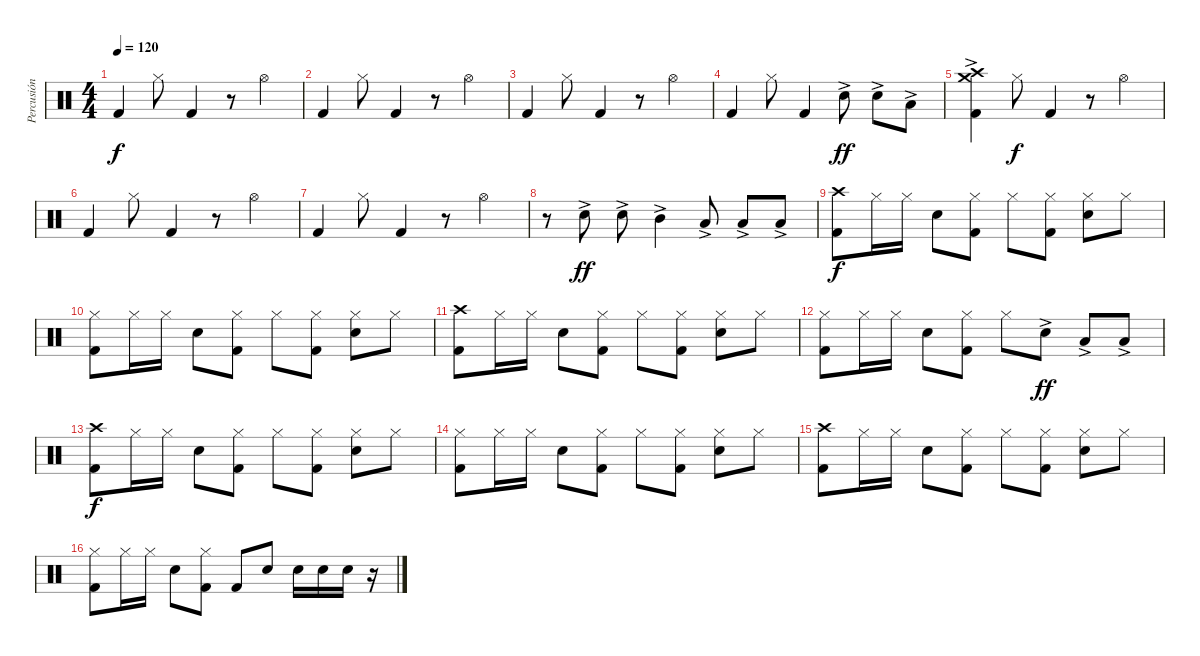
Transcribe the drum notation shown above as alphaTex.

\track ("Percusión" "Percusión") {instrument percussion}
\staff {score}
\articulation defaults
\ts (4 4)
\tempo 120
\clef neutral
\ks c "Kick (hit) 2".4{dy f} "Hi-Hat (closed)".8 "Kick (hit) 2".4
r.8 "Hi-Hat (open)".4 |
"Kick (hit) 2".4 "Hi-Hat (closed)".8 "Kick (hit) 2".4 r.8 "Hi-Hat (open)".4 |
"Kick (hit) 2".4 "Hi-Hat (closed)".8 "Kick (hit) 2".4 r.8 "Hi-Hat (open)".4 |
"Kick (hit) 2".4 "Hi-Hat (closed)".8 "Kick (hit) 2".4 "Snare (hit) 2"{ac}.8{dy ff} "Snare (hit) 2"{ac}.8 "Low Tom (hit)"{ac}.8 |
("Crash high (hit)"{ac} "Crash medium (hit)" "Kick (hit) 2").4 "Hi-Hat (closed)".8{dy f} "Kick (hit) 2".4 r.8 "Hi-Hat (open)".4 |
"Kick (hit) 2".4 "Hi-Hat (closed)".8 "Kick (hit) 2".4 r.8 "Hi-Hat (open)".4 |
"Kick (hit) 2".4 "Hi-Hat (closed)".8 "Kick (hit) 2".4 r.8 "Hi-Hat (open)".4 |
r.8 "Snare (hit) 2"{ac}.8{dy ff} "Snare (hit) 2"{ac}.8 "Mid Tom (hit)"{ac}.4 "Low Tom (hit)"{ac}.8 "Low Tom (hit)"{ac}.8 "Low Floor Tom (hit)"{ac}.8 |
("Crash high (hit)" "Kick (hit) 2").8{dy f} "Hi-Hat (closed)".16 "Hi-Hat (closed)".16 "Snare (hit) 2".8 ("Hi-Hat (closed)" "Kick (hit) 2").8 "Hi-Hat (closed)".8 ("Hi-Hat (closed)" "Kick (hit) 2").8 ("Hi-Hat (closed)" "Snare (hit) 2").8 "Hi-Hat (closed)".8 |
("Hi-Hat (closed)" "Kick (hit) 2").8 "Hi-Hat (closed)".16 "Hi-Hat (closed)".16 "Snare (hit) 2".8 ("Hi-Hat (closed)" "Kick (hit) 2").8 "Hi-Hat (closed)".8 ("Hi-Hat (closed)" "Kick (hit) 2").8 ("Hi-Hat (closed)" "Snare (hit) 2").8 "Hi-Hat (closed)".8 |
("Crash high (hit)" "Kick (hit) 2").8 "Hi-Hat (closed)".16 "Hi-Hat (closed)".16 "Snare (hit) 2".8 ("Hi-Hat (closed)" "Kick (hit) 2").8 "Hi-Hat (closed)".8 ("Hi-Hat (closed)" "Kick (hit) 2").8 ("Hi-Hat (closed)" "Snare (hit) 2").8 "Hi-Hat (closed)".8 |
("Hi-Hat (closed)" "Kick (hit) 2").8 "Hi-Hat (closed)".16 "Hi-Hat (closed)".16 "Snare (hit) 2".8 ("Hi-Hat (closed)" "Kick (hit) 2").8 "Hi-Hat (closed)".8 "Snare (hit) 2"{ac}.8{dy ff} "Low Tom (hit)"{ac}.8 "Low Floor Tom (hit)"{ac}.8 |
("Crash high (hit)" "Kick (hit) 2").8{dy f} "Hi-Hat (closed)".16 "Hi-Hat (closed)".16 "Snare (hit) 2".8 ("Hi-Hat (closed)" "Kick (hit) 2").8 "Hi-Hat (closed)".8 ("Hi-Hat (closed)" "Kick (hit) 2").8 ("Hi-Hat (closed)" "Snare (hit) 2").8 "Hi-Hat (closed)".8 |
("Hi-Hat (closed)" "Kick (hit) 2").8 "Hi-Hat (closed)".16 "Hi-Hat (closed)".16 "Snare (hit) 2".8 ("Hi-Hat (closed)" "Kick (hit) 2").8 "Hi-Hat (closed)".8 ("Hi-Hat (closed)" "Kick (hit) 2").8 ("Hi-Hat (closed)" "Snare (hit) 2").8 "Hi-Hat (closed)".8 |
("Crash high (hit)" "Kick (hit) 2").8 "Hi-Hat (closed)".16 "Hi-Hat (closed)".16 "Snare (hit) 2".8 ("Hi-Hat (closed)" "Kick (hit) 2").8 "Hi-Hat (closed)".8 ("Hi-Hat (closed)" "Kick (hit) 2").8 ("Hi-Hat (closed)" "Snare (hit) 2").8 "Hi-Hat (closed)".8 |
("Hi-Hat (closed)" "Kick (hit) 2").8 "Hi-Hat (closed)".16 "Hi-Hat (closed)".16 "Snare (hit) 2".8 ("Hi-Hat (closed)" "Kick (hit) 2").8 "Kick (hit) 2".8 "Snare (hit) 2".8 "Snare (hit) 2".16 "Snare (hit) 2".16 "Snare (hit) 2".16 r.16
